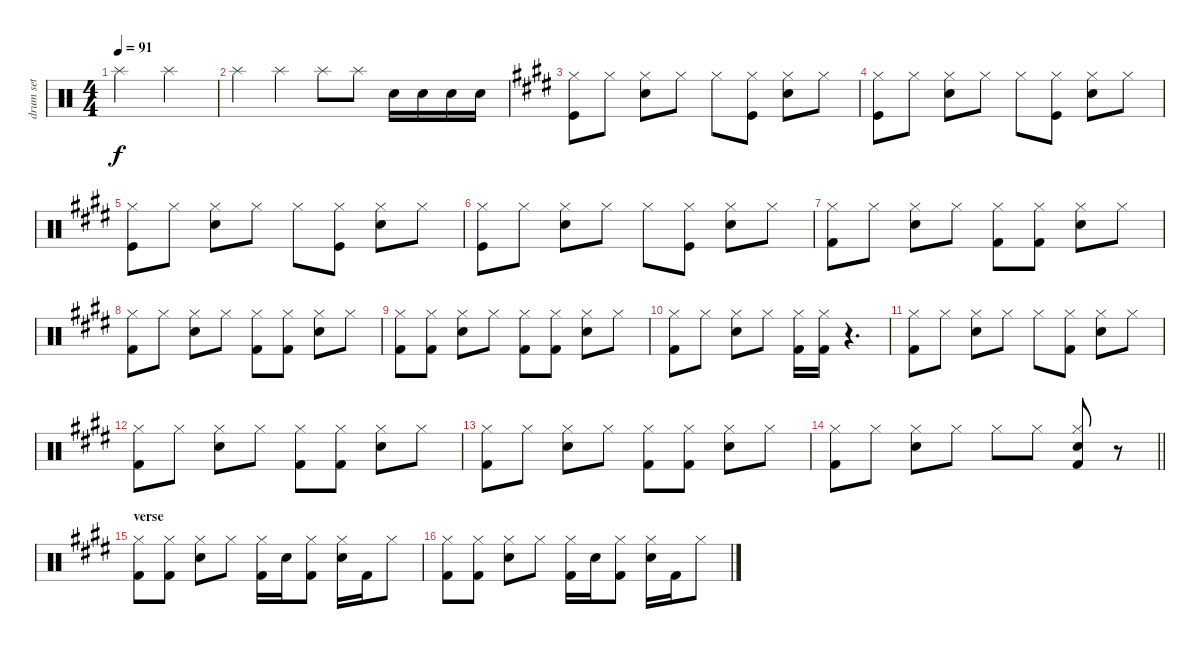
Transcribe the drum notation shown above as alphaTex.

\track ("drum set" "drum set") {instrument percussion}
\staff {score}
\articulation defaults
\ts (4 4)
\tempo 91
\clef neutral
\ks c "Splash (hit)".2{dy f} "Splash (hit)".2
|
"Splash (hit)".4 "Splash (hit)".4 "Splash (hit)".8 "Splash (hit)".8 "Hand Clap (hit)".16 "Hand Clap (hit)".16 "Hand Clap (hit)".16 "Hand Clap (hit)".16 |
\ks e
("Hi-Hat (closed)" "Kick (hit)").8 "Hi-Hat (closed)".8 ("Hi-Hat (closed)" "Hand Clap (hit)").8 "Hi-Hat (closed)".8 "Hi-Hat (closed)".8 ("Hi-Hat (closed)" "Kick (hit)").8 ("Hi-Hat (closed)" "Hand Clap (hit)").8 "Hi-Hat (closed)".8 |
\ks c#minor
("Hi-Hat (closed)" "Kick (hit)").8 "Hi-Hat (closed)".8 ("Hi-Hat (closed)" "Hand Clap (hit)").8 "Hi-Hat (closed)".8 "Hi-Hat (closed)".8 ("Hi-Hat (closed)" "Kick (hit)").8 ("Hi-Hat (closed)" "Hand Clap (hit)").8 "Hi-Hat (closed)".8 |
("Hi-Hat (closed)" "Kick (hit)").8 "Hi-Hat (closed)".8 ("Hi-Hat (closed)" "Hand Clap (hit)").8 "Hi-Hat (closed)".8 "Hi-Hat (closed)".8 ("Hi-Hat (closed)" "Kick (hit)").8 ("Hi-Hat (closed)" "Hand Clap (hit)").8 "Hi-Hat (closed)".8 |
("Hi-Hat (closed)" "Kick (hit)").8 "Hi-Hat (closed)".8 ("Hi-Hat (closed)" "Hand Clap (hit)").8 "Hi-Hat (closed)".8 "Hi-Hat (closed)".8 ("Hi-Hat (closed)" "Kick (hit)").8 ("Hi-Hat (closed)" "Hand Clap (hit)").8 "Hi-Hat (closed)".8 |
\ks e
("Hi-Hat (closed)" "Kick (hit) 2").8 "Hi-Hat (closed)".8 ("Hi-Hat (closed)" "Hand Clap (hit)").8 "Hi-Hat (closed)".8 ("Hi-Hat (closed)" "Kick (hit) 2").8 ("Hi-Hat (closed)" "Kick (hit) 2").8 ("Hi-Hat (closed)" "Hand Clap (hit)").8 "Hi-Hat (closed)".8 |
\ks c#minor
("Hi-Hat (closed)" "Kick (hit) 2").8 "Hi-Hat (closed)".8 ("Hi-Hat (closed)" "Hand Clap (hit)").8 "Hi-Hat (closed)".8 ("Hi-Hat (closed)" "Kick (hit) 2").8 ("Hi-Hat (closed)" "Kick (hit) 2").8 ("Hi-Hat (closed)" "Hand Clap (hit)").8 "Hi-Hat (closed)".8 |
("Hi-Hat (closed)" "Kick (hit) 2").8 ("Hi-Hat (closed)" "Kick (hit) 2").8 ("Hi-Hat (closed)" "Hand Clap (hit)").8 "Hi-Hat (closed)".8 ("Hi-Hat (closed)" "Kick (hit) 2").8 ("Hi-Hat (closed)" "Kick (hit) 2").8 ("Hi-Hat (closed)" "Hand Clap (hit)").8 "Hi-Hat (closed)".8 |
("Hi-Hat (closed)" "Kick (hit) 2").8 "Hi-Hat (closed)".8 ("Hi-Hat (closed)" "Hand Clap (hit)").8 "Hi-Hat (closed)".8 ("Hi-Hat (closed)" "Kick (hit) 2").16 ("Hi-Hat (closed)" "Kick (hit) 2").16 r.4{d} |
\ks e
("Hi-Hat (closed)" "Kick (hit) 2").8 "Hi-Hat (closed)".8 ("Hi-Hat (closed)" "Hand Clap (hit)").8 "Hi-Hat (closed)".8 "Hi-Hat (closed)".8 ("Hi-Hat (closed)" "Kick (hit) 2").8 ("Hi-Hat (closed)" "Hand Clap (hit)").8 "Hi-Hat (closed)".8 |
\ks c#minor
("Hi-Hat (closed)" "Kick (hit) 2").8 "Hi-Hat (closed)".8 ("Hi-Hat (closed)" "Hand Clap (hit)").8 "Hi-Hat (closed)".8 ("Hi-Hat (closed)" "Kick (hit) 2").8 ("Hi-Hat (closed)" "Kick (hit) 2").8 ("Hi-Hat (closed)" "Hand Clap (hit)").8 "Hi-Hat (closed)".8 |
\ks e
("Hi-Hat (closed)" "Kick (hit) 2").8 "Hi-Hat (closed)".8 ("Hi-Hat (closed)" "Hand Clap (hit)").8 "Hi-Hat (closed)".8 ("Hi-Hat (closed)" "Kick (hit) 2").8 ("Hi-Hat (closed)" "Kick (hit) 2").8 ("Hi-Hat (closed)" "Hand Clap (hit)").8 "Hi-Hat (closed)".8 |
\barLineRight lightlight
\ks c#minor
("Hi-Hat (closed)" "Kick (hit) 2").8 "Hi-Hat (closed)".8 ("Hi-Hat (closed)" "Hand Clap (hit)").8 "Hi-Hat (closed)".8 "Hi-Hat (closed)".8 "Hi-Hat (closed)".8 ("Hi-Hat (closed)" "Hand Clap (hit)" "Kick (hit) 2").8 r.8 |
\section ("" "verse")
\ks e
("Hi-Hat (closed)" "Kick (hit) 2").8 ("Hi-Hat (closed)" "Kick (hit) 2").8 ("Hi-Hat (closed)" "Hand Clap (hit)").8 "Hi-Hat (closed)".8 ("Hi-Hat (closed)" "Kick (hit) 2").16 "Hand Clap (hit)".16 ("Hi-Hat (closed)" "Kick (hit) 2").8 ("Hi-Hat (closed)" "Hand Clap (hit)").16 "Kick (hit) 2".16 "Hi-Hat (closed)".8 |
\ks c#minor
("Hi-Hat (closed)" "Kick (hit) 2").8 ("Hi-Hat (closed)" "Kick (hit) 2").8 ("Hi-Hat (closed)" "Hand Clap (hit)").8 "Hi-Hat (closed)".8 ("Hi-Hat (closed)" "Kick (hit) 2").16 "Hand Clap (hit)".16 ("Hi-Hat (closed)" "Kick (hit) 2").8 ("Hi-Hat (closed)" "Hand Clap (hit)").16 "Kick (hit) 2".16 "Hi-Hat (closed)".8
